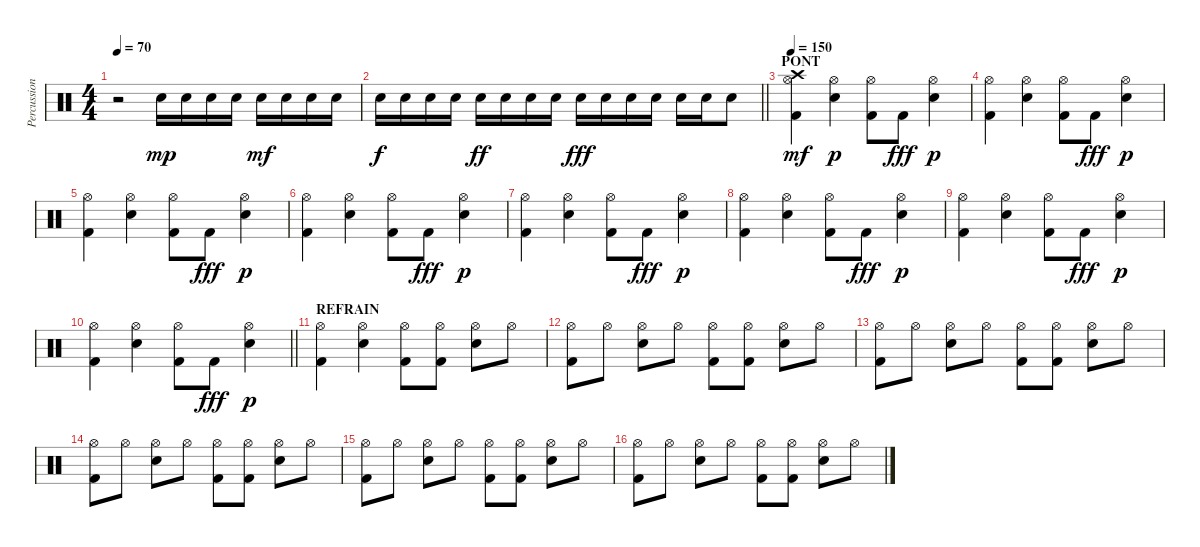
\track ("Percussions" "Percussion") {instrument percussion}
\staff {score}
\articulation defaults
\ts (4 4)
\tempo 70
\clef neutral
\ks c
r.2{dy mf} "Snare (hit) 2".16{dy mp} "Snare (hit) 2".16 "Snare (hit) 2".16 "Snare (hit) 2".16 "Snare (hit) 2".16{dy mf} "Snare (hit) 2".16 "Snare (hit) 2".16 "Snare (hit) 2".16 |
\barLineRight lightlight "Snare (hit) 2".16{dy f} "Snare (hit) 2".16 "Snare (hit) 2".16 "Snare (hit) 2".16 "Snare (hit) 2".16{dy ff} "Snare (hit) 2".16 "Snare (hit) 2".16 "Snare (hit) 2".16 "Snare (hit) 2".16{dy fff} "Snare (hit) 2".16 "Snare (hit) 2".16 "Snare (hit) 2".16 "Snare (hit) 2".16 "Snare (hit) 2".16 "Snare (hit) 2".8
|
\section ("" "PONT")
\tempo 150
("Kick (hit) 2" "Hi-Hat (open)" "Crash high (hit)").4{dy mf} ("Snare (hit) 2" "Hi-Hat (open)").4{dy p} ("Kick (hit) 2" "Hi-Hat (open)").8 "Kick (hit) 2".8{dy fff} ("Snare (hit) 2" "Hi-Hat (open)").4{dy p} |
("Kick (hit) 2" "Hi-Hat (open)").4 ("Snare (hit) 2" "Hi-Hat (open)").4 ("Kick (hit) 2" "Hi-Hat (open)").8 "Kick (hit) 2".8{dy fff} ("Snare (hit) 2" "Hi-Hat (open)").4{dy p} |
("Kick (hit) 2" "Hi-Hat (open)").4 ("Snare (hit) 2" "Hi-Hat (open)").4 ("Kick (hit) 2" "Hi-Hat (open)").8 "Kick (hit) 2".8{dy fff} ("Snare (hit) 2" "Hi-Hat (open)").4{dy p} |
("Kick (hit) 2" "Hi-Hat (open)").4 ("Snare (hit) 2" "Hi-Hat (open)").4 ("Kick (hit) 2" "Hi-Hat (open)").8 "Kick (hit) 2".8{dy fff} ("Snare (hit) 2" "Hi-Hat (open)").4{dy p} |
("Kick (hit) 2" "Hi-Hat (open)").4 ("Snare (hit) 2" "Hi-Hat (open)").4 ("Kick (hit) 2" "Hi-Hat (open)").8 "Kick (hit) 2".8{dy fff} ("Snare (hit) 2" "Hi-Hat (open)").4{dy p} |
("Kick (hit) 2" "Hi-Hat (open)").4 ("Snare (hit) 2" "Hi-Hat (open)").4 ("Kick (hit) 2" "Hi-Hat (open)").8 "Kick (hit) 2".8{dy fff} ("Snare (hit) 2" "Hi-Hat (open)").4{dy p} |
("Kick (hit) 2" "Hi-Hat (open)").4 ("Snare (hit) 2" "Hi-Hat (open)").4 ("Kick (hit) 2" "Hi-Hat (open)").8 "Kick (hit) 2".8{dy fff} ("Snare (hit) 2" "Hi-Hat (open)").4{dy p} |
\barLineRight lightlight
("Kick (hit) 2" "Hi-Hat (open)").4 ("Snare (hit) 2" "Hi-Hat (open)").4 ("Kick (hit) 2" "Hi-Hat (open)").8 "Kick (hit) 2".8{dy fff} ("Snare (hit) 2" "Hi-Hat (open)").4{dy p} |
\section ("" "REFRAIN")
("Kick (hit) 2" "Hi-Hat (open)").4 ("Snare (hit) 2" "Hi-Hat (open)").4 ("Kick (hit) 2" "Hi-Hat (open)").8 ("Kick (hit) 2" "Hi-Hat (open)").8 ("Snare (hit) 2" "Hi-Hat (open)").8 "Hi-Hat (open)".8 |
("Kick (hit) 2" "Hi-Hat (open)").8 "Hi-Hat (open)".8 ("Snare (hit) 2" "Hi-Hat (open)").8 "Hi-Hat (open)".8 ("Kick (hit) 2" "Hi-Hat (open)").8 ("Kick (hit) 2" "Hi-Hat (open)").8 ("Snare (hit) 2" "Hi-Hat (open)").8 "Hi-Hat (open)".8 |
("Kick (hit) 2" "Hi-Hat (open)").8 "Hi-Hat (open)".8 ("Snare (hit) 2" "Hi-Hat (open)").8 "Hi-Hat (open)".8 ("Kick (hit) 2" "Hi-Hat (open)").8 ("Kick (hit) 2" "Hi-Hat (open)").8 ("Snare (hit) 2" "Hi-Hat (open)").8 "Hi-Hat (open)".8 |
("Kick (hit) 2" "Hi-Hat (open)").8 "Hi-Hat (open)".8 ("Snare (hit) 2" "Hi-Hat (open)").8 "Hi-Hat (open)".8 ("Kick (hit) 2" "Hi-Hat (open)").8 ("Kick (hit) 2" "Hi-Hat (open)").8 ("Snare (hit) 2" "Hi-Hat (open)").8 "Hi-Hat (open)".8 |
("Kick (hit) 2" "Hi-Hat (open)").8 "Hi-Hat (open)".8 ("Snare (hit) 2" "Hi-Hat (open)").8 "Hi-Hat (open)".8 ("Kick (hit) 2" "Hi-Hat (open)").8 ("Kick (hit) 2" "Hi-Hat (open)").8 ("Snare (hit) 2" "Hi-Hat (open)").8 "Hi-Hat (open)".8 |
("Kick (hit) 2" "Hi-Hat (open)").8 "Hi-Hat (open)".8 ("Snare (hit) 2" "Hi-Hat (open)").8 "Hi-Hat (open)".8 ("Kick (hit) 2" "Hi-Hat (open)").8 ("Kick (hit) 2" "Hi-Hat (open)").8 ("Snare (hit) 2" "Hi-Hat (open)").8 "Hi-Hat (open)".8
